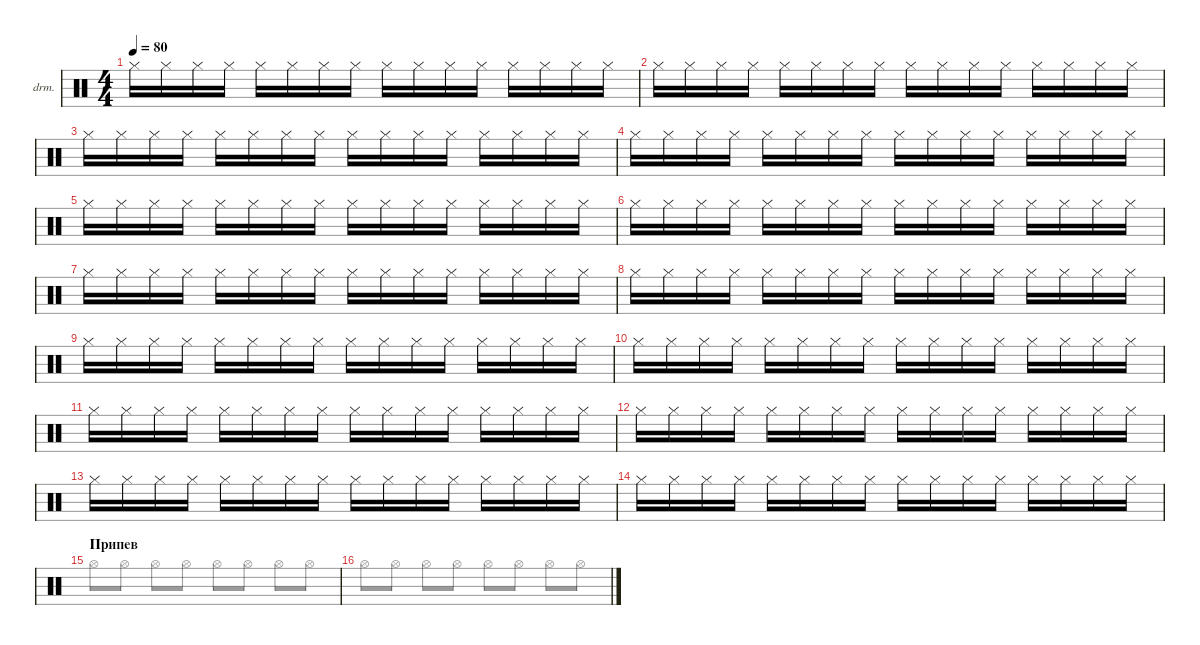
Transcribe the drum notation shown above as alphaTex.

\defaultSystemsLayout 4
\hideDynamics
\bracketExtendMode nobrackets
\firstSystemTrackNameOrientation horizontal
\otherSystemsTrackNameOrientation horizontal
\track ("Drumkit" "drm.") {instrument percussion}
\staff {score}
\articulation defaults
\voice
\ts (4 4)
\tempo 80
\clef neutral
\ks c "Hi-Hat (closed)".16{dy mp} "Hi-Hat (closed)".16 "Hi-Hat (closed)".16 "Hi-Hat (closed)".16 "Hi-Hat (closed)".16 "Hi-Hat (closed)".16 "Hi-Hat (closed)".16 "Hi-Hat (closed)".16 "Hi-Hat (closed)".16 "Hi-Hat (closed)".16 "Hi-Hat (closed)".16 "Hi-Hat (closed)".16 "Hi-Hat (closed)".16 "Hi-Hat (closed)".16 "Hi-Hat (closed)".16 "Hi-Hat (closed)".16
|
"Hi-Hat (closed)".16 "Hi-Hat (closed)".16 "Hi-Hat (closed)".16 "Hi-Hat (closed)".16 "Hi-Hat (closed)".16 "Hi-Hat (closed)".16 "Hi-Hat (closed)".16 "Hi-Hat (closed)".16 "Hi-Hat (closed)".16 "Hi-Hat (closed)".16 "Hi-Hat (closed)".16 "Hi-Hat (closed)".16 "Hi-Hat (closed)".16 "Hi-Hat (closed)".16 "Hi-Hat (closed)".16 "Hi-Hat (closed)".16 |
"Hi-Hat (closed)".16 "Hi-Hat (closed)".16 "Hi-Hat (closed)".16 "Hi-Hat (closed)".16 "Hi-Hat (closed)".16 "Hi-Hat (closed)".16 "Hi-Hat (closed)".16 "Hi-Hat (closed)".16 "Hi-Hat (closed)".16 "Hi-Hat (closed)".16 "Hi-Hat (closed)".16 "Hi-Hat (closed)".16 "Hi-Hat (closed)".16 "Hi-Hat (closed)".16 "Hi-Hat (closed)".16 "Hi-Hat (closed)".16 |
"Hi-Hat (closed)".16 "Hi-Hat (closed)".16 "Hi-Hat (closed)".16 "Hi-Hat (closed)".16 "Hi-Hat (closed)".16 "Hi-Hat (closed)".16 "Hi-Hat (closed)".16 "Hi-Hat (closed)".16 "Hi-Hat (closed)".16 "Hi-Hat (closed)".16 "Hi-Hat (closed)".16 "Hi-Hat (closed)".16 "Hi-Hat (closed)".16 "Hi-Hat (closed)".16 "Hi-Hat (closed)".16 "Hi-Hat (closed)".16 |
"Hi-Hat (closed)".16 "Hi-Hat (closed)".16 "Hi-Hat (closed)".16 "Hi-Hat (closed)".16 "Hi-Hat (closed)".16 "Hi-Hat (closed)".16 "Hi-Hat (closed)".16 "Hi-Hat (closed)".16 "Hi-Hat (closed)".16 "Hi-Hat (closed)".16 "Hi-Hat (closed)".16 "Hi-Hat (closed)".16 "Hi-Hat (closed)".16 "Hi-Hat (closed)".16 "Hi-Hat (closed)".16 "Hi-Hat (closed)".16 |
"Hi-Hat (closed)".16 "Hi-Hat (closed)".16 "Hi-Hat (closed)".16 "Hi-Hat (closed)".16 "Hi-Hat (closed)".16 "Hi-Hat (closed)".16 "Hi-Hat (closed)".16 "Hi-Hat (closed)".16 "Hi-Hat (closed)".16 "Hi-Hat (closed)".16 "Hi-Hat (closed)".16 "Hi-Hat (closed)".16 "Hi-Hat (closed)".16 "Hi-Hat (closed)".16 "Hi-Hat (closed)".16 "Hi-Hat (closed)".16 |
"Hi-Hat (closed)".16 "Hi-Hat (closed)".16 "Hi-Hat (closed)".16 "Hi-Hat (closed)".16 "Hi-Hat (closed)".16 "Hi-Hat (closed)".16 "Hi-Hat (closed)".16 "Hi-Hat (closed)".16 "Hi-Hat (closed)".16 "Hi-Hat (closed)".16 "Hi-Hat (closed)".16 "Hi-Hat (closed)".16 "Hi-Hat (closed)".16 "Hi-Hat (closed)".16 "Hi-Hat (closed)".16 "Hi-Hat (closed)".16 |
"Hi-Hat (closed)".16 "Hi-Hat (closed)".16 "Hi-Hat (closed)".16 "Hi-Hat (closed)".16 "Hi-Hat (closed)".16 "Hi-Hat (closed)".16 "Hi-Hat (closed)".16 "Hi-Hat (closed)".16 "Hi-Hat (closed)".16 "Hi-Hat (closed)".16 "Hi-Hat (closed)".16 "Hi-Hat (closed)".16 "Hi-Hat (closed)".16 "Hi-Hat (closed)".16 "Hi-Hat (closed)".16 "Hi-Hat (closed)".16 |
"Hi-Hat (closed)".16 "Hi-Hat (closed)".16 "Hi-Hat (closed)".16 "Hi-Hat (closed)".16 "Hi-Hat (closed)".16 "Hi-Hat (closed)".16 "Hi-Hat (closed)".16 "Hi-Hat (closed)".16 "Hi-Hat (closed)".16 "Hi-Hat (closed)".16 "Hi-Hat (closed)".16 "Hi-Hat (closed)".16 "Hi-Hat (closed)".16 "Hi-Hat (closed)".16 "Hi-Hat (closed)".16 "Hi-Hat (closed)".16 |
"Hi-Hat (closed)".16 "Hi-Hat (closed)".16 "Hi-Hat (closed)".16 "Hi-Hat (closed)".16 "Hi-Hat (closed)".16 "Hi-Hat (closed)".16 "Hi-Hat (closed)".16 "Hi-Hat (closed)".16 "Hi-Hat (closed)".16 "Hi-Hat (closed)".16 "Hi-Hat (closed)".16 "Hi-Hat (closed)".16 "Hi-Hat (closed)".16 "Hi-Hat (closed)".16 "Hi-Hat (closed)".16 "Hi-Hat (closed)".16 |
"Hi-Hat (closed)".16 "Hi-Hat (closed)".16 "Hi-Hat (closed)".16 "Hi-Hat (closed)".16 "Hi-Hat (closed)".16 "Hi-Hat (closed)".16 "Hi-Hat (closed)".16 "Hi-Hat (closed)".16 "Hi-Hat (closed)".16 "Hi-Hat (closed)".16 "Hi-Hat (closed)".16 "Hi-Hat (closed)".16 "Hi-Hat (closed)".16 "Hi-Hat (closed)".16 "Hi-Hat (closed)".16 "Hi-Hat (closed)".16 |
"Hi-Hat (closed)".16 "Hi-Hat (closed)".16 "Hi-Hat (closed)".16 "Hi-Hat (closed)".16 "Hi-Hat (closed)".16 "Hi-Hat (closed)".16 "Hi-Hat (closed)".16 "Hi-Hat (closed)".16 "Hi-Hat (closed)".16 "Hi-Hat (closed)".16 "Hi-Hat (closed)".16 "Hi-Hat (closed)".16 "Hi-Hat (closed)".16 "Hi-Hat (closed)".16 "Hi-Hat (closed)".16 "Hi-Hat (closed)".16 |
"Hi-Hat (closed)".16 "Hi-Hat (closed)".16 "Hi-Hat (closed)".16 "Hi-Hat (closed)".16 "Hi-Hat (closed)".16 "Hi-Hat (closed)".16 "Hi-Hat (closed)".16 "Hi-Hat (closed)".16 "Hi-Hat (closed)".16 "Hi-Hat (closed)".16 "Hi-Hat (closed)".16 "Hi-Hat (closed)".16 "Hi-Hat (closed)".16 "Hi-Hat (closed)".16 "Hi-Hat (closed)".16 "Hi-Hat (closed)".16 |
"Hi-Hat (closed)".16 "Hi-Hat (closed)".16 "Hi-Hat (closed)".16 "Hi-Hat (closed)".16 "Hi-Hat (closed)".16 "Hi-Hat (closed)".16 "Hi-Hat (closed)".16 "Hi-Hat (closed)".16 "Hi-Hat (closed)".16 "Hi-Hat (closed)".16 "Hi-Hat (closed)".16 "Hi-Hat (closed)".16 "Hi-Hat (closed)".16 "Hi-Hat (closed)".16 "Hi-Hat (closed)".16 "Hi-Hat (closed)".16 |
\section ("" "Припев")
|
\voice
\clef neutral
\ottava regular
\simile none
\ks c
|
|
|
|
|
|
|
|
|
|
|
|
|
|
"Hi-Hat (open)".8 "Hi-Hat (open)".8 "Hi-Hat (open)".8 "Hi-Hat (open)".8 "Hi-Hat (open)".8 "Hi-Hat (open)".8 "Hi-Hat (open)".8 "Hi-Hat (open)".8 |
"Hi-Hat (open)".8 "Hi-Hat (open)".8 "Hi-Hat (open)".8 "Hi-Hat (open)".8 "Hi-Hat (open)".8 "Hi-Hat (open)".8 "Hi-Hat (open)".8 "Hi-Hat (open)".8
